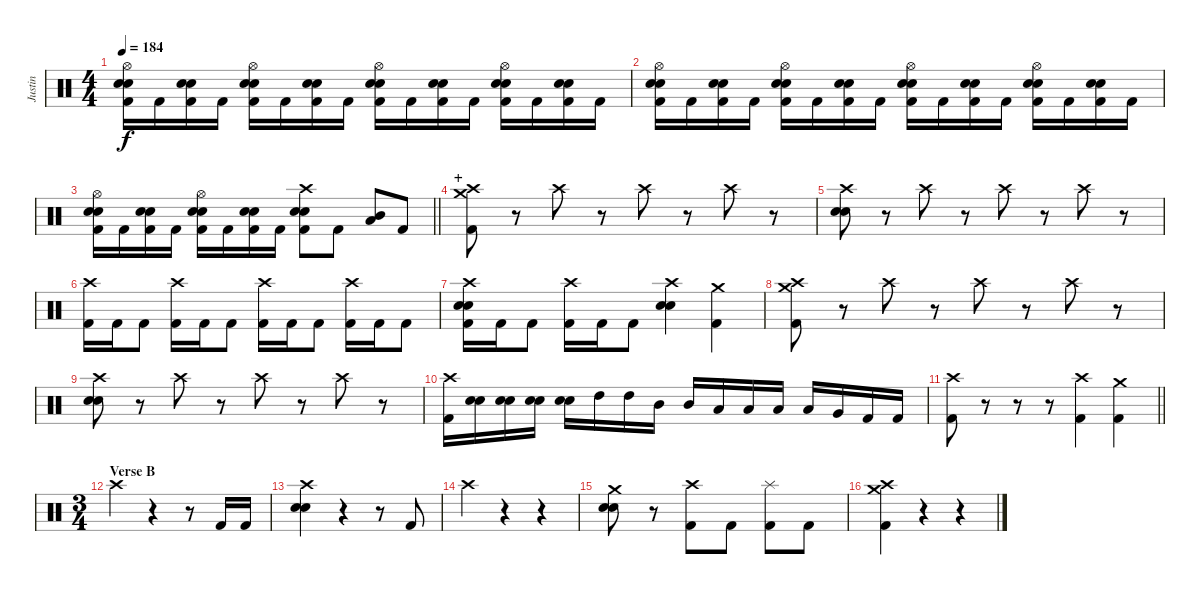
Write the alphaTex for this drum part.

\track ("Justin" "Justin") {instrument percussion}
\staff {score}
\articulation defaults
\ts (4 4)
\tempo 184
\clef neutral
\ks c
("Hi-Hat (open)" "Electric Snare (hit)" "Snare (hit) 2" "Kick (hit) 2").16{dy f} "Kick (hit) 2".16 ("Electric Snare (hit)" "Snare (hit) 2" "Kick (hit) 2").16 "Kick (hit) 2".16 ("Hi-Hat (open)" "Electric Snare (hit)" "Snare (hit) 2" "Kick (hit) 2").16 "Kick (hit) 2".16 ("Electric Snare (hit)" "Snare (hit) 2" "Kick (hit) 2").16 "Kick (hit) 2".16 ("Hi-Hat (open)" "Electric Snare (hit)" "Snare (hit) 2" "Kick (hit) 2").16 "Kick (hit) 2".16 ("Electric Snare (hit)" "Snare (hit) 2" "Kick (hit) 2").16 "Kick (hit) 2".16 ("Hi-Hat (open)" "Electric Snare (hit)" "Snare (hit) 2" "Kick (hit) 2").16 "Kick (hit) 2".16 ("Electric Snare (hit)" "Snare (hit) 2" "Kick (hit) 2").16 "Kick (hit) 2".16 |
("Hi-Hat (open)" "Electric Snare (hit)" "Snare (hit) 2" "Kick (hit) 2").16 "Kick (hit) 2".16 ("Electric Snare (hit)" "Snare (hit) 2" "Kick (hit) 2").16 "Kick (hit) 2".16 ("Hi-Hat (open)" "Electric Snare (hit)" "Snare (hit) 2" "Kick (hit) 2").16 "Kick (hit) 2".16 ("Electric Snare (hit)" "Snare (hit) 2" "Kick (hit) 2").16 "Kick (hit) 2".16 ("Hi-Hat (open)" "Electric Snare (hit)" "Snare (hit) 2" "Kick (hit) 2").16 "Kick (hit) 2".16 ("Electric Snare (hit)" "Snare (hit) 2" "Kick (hit) 2").16 "Kick (hit) 2".16 ("Hi-Hat (open)" "Electric Snare (hit)" "Snare (hit) 2" "Kick (hit) 2").16 "Kick (hit) 2".16 ("Electric Snare (hit)" "Snare (hit) 2" "Kick (hit) 2").16 "Kick (hit) 2".16 |
\barLineRight lightlight
("Hi-Hat (open)" "Electric Snare (hit)" "Snare (hit) 2" "Kick (hit) 2").16 "Kick (hit) 2".16 ("Electric Snare (hit)" "Snare (hit) 2" "Kick (hit) 2").16 "Kick (hit) 2".16 ("Hi-Hat (open)" "Electric Snare (hit)" "Snare (hit) 2" "Kick (hit) 2").16 "Kick (hit) 2".16 ("Electric Snare (hit)" "Snare (hit) 2" "Kick (hit) 2").16 "Kick (hit) 2".16 ("Crash high (hit)" "Electric Snare (hit)" "Snare (hit) 2" "Kick (hit) 2").8 "Kick (hit) 2".8 ("Mid Tom (hit)" "Low Tom (hit)").8 "Kick (hit) 2".8 |
\section ("" "+")
("Crash medium (hit)" "Crash high (hit)" "Kick (hit) 2").8 r.8 "Crash high (hit)".8 r.8 "Crash high (hit)".8 r.8 "Crash high (hit)".8 r.8 |
("Crash high (hit)" "Electric Snare (hit)" "Snare (hit) 2").8 r.8 "Crash high (hit)".8 r.8 "Crash high (hit)".8 r.8 "Crash high (hit)".8 r.8 |
("Crash high (hit)" "Kick (hit) 2").16 "Kick (hit) 2".16 "Kick (hit) 2".8 ("Crash high (hit)" "Kick (hit) 2").16 "Kick (hit) 2".16 "Kick (hit) 2".8 ("Crash high (hit)" "Kick (hit) 2").16 "Kick (hit) 2".16 "Kick (hit) 2".8 ("Crash high (hit)" "Kick (hit) 2").16 "Kick (hit) 2".16 "Kick (hit) 2".8 |
("Crash high (hit)" "Electric Snare (hit)" "Snare (hit) 2" "Kick (hit) 2").16 "Kick (hit) 2".16 "Kick (hit) 2".8 ("Crash high (hit)" "Kick (hit) 2").16 "Kick (hit) 2".16 "Kick (hit) 2".8 ("Crash high (hit)" "Electric Snare (hit)" "Snare (hit) 2").4 ("Crash medium (hit)" "Kick (hit) 2").4 |
("Crash medium (hit)" "Crash high (hit)" "Kick (hit) 2").8 r.8 "Crash high (hit)".8 r.8 "Crash high (hit)".8 r.8 "Crash high (hit)".8 r.8 |
("Crash high (hit)" "Electric Snare (hit)" "Snare (hit) 2").8 r.8 "Crash high (hit)".8 r.8 "Crash high (hit)".8 r.8 "Crash high (hit)".8 r.8 |
("Crash high (hit)" "Kick (hit) 2").16 ("Electric Snare (hit)" "Snare (hit) 2").16 ("Electric Snare (hit)" "Snare (hit) 2").16 ("Electric Snare (hit)" "Snare (hit) 2").16 ("Electric Snare (hit)" "Snare (hit) 2").16 "High Tom (hit)".16 "High Tom (hit)".16 "Mid Tom (hit)".16 "Mid Tom (hit)".16 "Low Tom (hit)".16 "Low Tom (hit)".16 "Low Tom (hit)".16 "Low Tom (hit)".16 "Very Low Tom (hit)".16 "Kick (hit) 2".16 "Kick (hit) 2".16 |
\barLineRight lightlight
("Crash high (hit)" "Kick (hit) 2").8 r.8{volume 0} r.8 r.8 ("Crash high (hit)" "Kick (hit) 2").4{volume 16} ("Crash medium (hit)" "Kick (hit) 2").4 |
\ts (3 4)
\section ("" "Verse B")
"Crash high (hit)".4 r.4 r.8 "Kick (hit) 2".16 "Kick (hit) 2".16 |
("Crash high (hit)" "Electric Snare (hit)" "Snare (hit) 2").4 r.4 r.8 "Kick (hit) 2".8 |
"Crash high (hit)".4 r.4 r.4 |
("Crash medium (hit)" "Electric Snare (hit)" "Snare (hit) 2").8 r.8 ("Crash high (hit)" "Kick (hit) 2").8 "Kick (hit) 2".8 ("Splash (hit)" "Kick (hit) 2").8 "Kick (hit) 2".8 |
("Crash medium (hit)" "Crash high (hit)" "Kick (hit) 2").4 r.4 r.4
